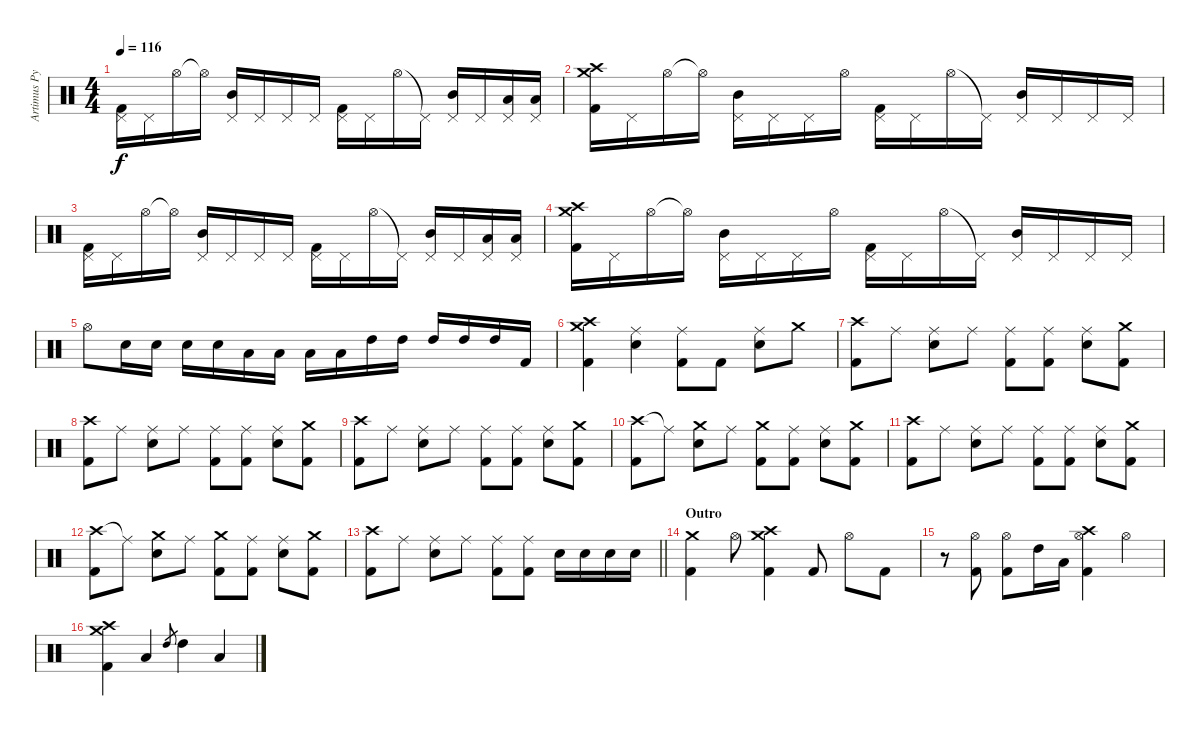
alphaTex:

\track ("Artimus Pyle - Drums and Percussion" "Artimus Py") {instrument percussion}
\staff {score}
\articulation defaults
\ts (4 4)
\tempo 116
\clef neutral
\ks c
("Pedal Hi-Hat (hit)" "Kick (hit) 2").16{dy f} "Pedal Hi-Hat (hit)".16 "Hi-Hat (open)".16 "Hi-Hat (open)"{t}.16 ("Pedal Hi-Hat (hit)" "Mid Tom (hit)").16 "Pedal Hi-Hat (hit)".16 "Pedal Hi-Hat (hit)".16 "Pedal Hi-Hat (hit)".16 ("Pedal Hi-Hat (hit)" "Kick (hit) 2").16 "Pedal Hi-Hat (hit)".16 "Hi-Hat (open)".16 "Pedal Hi-Hat (hit)"{t}.16 ("Pedal Hi-Hat (hit)" "Mid Tom (hit)").16 "Pedal Hi-Hat (hit)".16 ("Pedal Hi-Hat (hit)" "Low Floor Tom (hit)").16 ("Pedal Hi-Hat (hit)" "Low Floor Tom (hit)").16 |
("Crash high (hit)" "Crash medium (hit)" "Kick (hit) 2").16 "Pedal Hi-Hat (hit)".16 "Hi-Hat (open)".16 "Hi-Hat (open)"{t}.16 ("Pedal Hi-Hat (hit)" "Mid Tom (hit)").16 "Pedal Hi-Hat (hit)".16 "Pedal Hi-Hat (hit)".16 "Hi-Hat (open)".16 ("Pedal Hi-Hat (hit)" "Kick (hit) 2").16 "Pedal Hi-Hat (hit)".16 "Hi-Hat (open)".16 "Pedal Hi-Hat (hit)"{t}.16 ("Pedal Hi-Hat (hit)" "Mid Tom (hit)").16 "Pedal Hi-Hat (hit)".16 "Pedal Hi-Hat (hit)".16 "Pedal Hi-Hat (hit)".16 |
("Pedal Hi-Hat (hit)" "Kick (hit) 2").16 "Pedal Hi-Hat (hit)".16 "Hi-Hat (open)".16 "Hi-Hat (open)"{t}.16 ("Pedal Hi-Hat (hit)" "Mid Tom (hit)").16 "Pedal Hi-Hat (hit)".16 "Pedal Hi-Hat (hit)".16 "Pedal Hi-Hat (hit)".16 ("Pedal Hi-Hat (hit)" "Kick (hit) 2").16 "Pedal Hi-Hat (hit)".16 "Hi-Hat (open)".16 "Pedal Hi-Hat (hit)"{t}.16 ("Pedal Hi-Hat (hit)" "Mid Tom (hit)").16 "Pedal Hi-Hat (hit)".16 ("Pedal Hi-Hat (hit)" "Low Floor Tom (hit)").16 ("Pedal Hi-Hat (hit)" "Low Floor Tom (hit)").16 |
("Crash high (hit)" "Crash medium (hit)" "Kick (hit) 2").16 "Pedal Hi-Hat (hit)".16 "Hi-Hat (open)".16 "Hi-Hat (open)"{t}.16 ("Pedal Hi-Hat (hit)" "Mid Tom (hit)").16 "Pedal Hi-Hat (hit)".16 "Pedal Hi-Hat (hit)".16 "Hi-Hat (open)".16 ("Pedal Hi-Hat (hit)" "Kick (hit) 2").16 "Pedal Hi-Hat (hit)".16 "Hi-Hat (open)".16 "Pedal Hi-Hat (hit)"{t}.16 ("Pedal Hi-Hat (hit)" "Mid Tom (hit)").16 "Pedal Hi-Hat (hit)".16 "Pedal Hi-Hat (hit)".16 "Pedal Hi-Hat (hit)".16 |
"Hi-Hat (open)".8 "Snare (hit) 2".16 "Snare (hit) 2".16 "Snare (hit) 2".16 "Snare (hit) 2".16 "Low Floor Tom (hit)".16 "Low Floor Tom (hit)".16 "Low Floor Tom (hit)".16 "Low Floor Tom (hit)".16 "High Tom (hit)".16 "High Tom (hit)".16 "High Tom (hit)".16 "High Tom (hit)".16 "High Tom (hit)".16 "Kick (hit) 2".16 |
("Crash medium (hit)" "Crash high (hit)" "Kick (hit) 2").4 ("Ride (middle)" "Snare (hit) 2").4 ("Ride (middle)" "Kick (hit) 2").8 "Kick (hit) 2".8 ("Ride (middle)" "Snare (hit) 2").8 "Crash medium (hit)".8 |
("Crash high (hit)" "Kick (hit) 2").8 "Ride (middle)".8 ("Ride (middle)" "Snare (hit) 2").8 "Ride (middle)".8 ("Ride (middle)" "Kick (hit) 2").8 ("Ride (middle)" "Kick (hit) 2").8 ("Ride (middle)" "Snare (hit) 2").8 ("Crash medium (hit)" "Kick (hit) 2").8 |
("Crash high (hit)" "Kick (hit) 2").8 "Ride (middle)".8 ("Ride (middle)" "Snare (hit) 2").8 "Ride (middle)".8 ("Ride (middle)" "Kick (hit) 2").8 ("Ride (middle)" "Kick (hit) 2").8 ("Ride (middle)" "Snare (hit) 2").8 ("Crash medium (hit)" "Kick (hit) 2").8 |
("Crash high (hit)" "Kick (hit) 2").8 "Ride (middle)".8 ("Ride (middle)" "Snare (hit) 2").8 "Ride (middle)".8 ("Ride (middle)" "Kick (hit) 2").8 ("Ride (middle)" "Kick (hit) 2").8 ("Ride (middle)" "Snare (hit) 2").8 ("Crash medium (hit)" "Kick (hit) 2").8 |
("Crash high (hit)" "Kick (hit) 2").8 "Ride (middle)"{t}.8 ("Crash medium (hit)" "Snare (hit) 2").8 "Ride (middle)".8 ("Crash medium (hit)" "Kick (hit) 2").8 ("Ride (middle)" "Kick (hit) 2").8 ("Ride (middle)" "Snare (hit) 2").8 ("Crash medium (hit)" "Kick (hit) 2").8 |
("Crash high (hit)" "Kick (hit) 2").8 "Ride (middle)".8 ("Ride (middle)" "Snare (hit) 2").8 "Ride (middle)".8 ("Ride (middle)" "Kick (hit) 2").8 ("Ride (middle)" "Kick (hit) 2").8 ("Ride (middle)" "Snare (hit) 2").8 ("Crash medium (hit)" "Kick (hit) 2").8 |
("Crash high (hit)" "Kick (hit) 2").8 "Ride (middle)"{t}.8 ("Crash medium (hit)" "Snare (hit) 2").8 "Ride (middle)".8 ("Crash medium (hit)" "Kick (hit) 2").8 ("Ride (middle)" "Kick (hit) 2").8 ("Ride (middle)" "Snare (hit) 2").8 ("Crash medium (hit)" "Kick (hit) 2").8 |
\barLineRight lightlight
("Crash high (hit)" "Kick (hit) 2").8 "Ride (middle)".8 ("Ride (middle)" "Snare (hit) 2").8 "Ride (middle)".8 ("Ride (middle)" "Kick (hit) 2").8 ("Ride (middle)" "Kick (hit) 2").8 "Snare (hit) 2".16 "Snare (hit) 2".16 "Snare (hit) 2".16 "Snare (hit) 2".16 |
\section ("" "Outro")
("Crash medium (hit)" "Kick (hit) 2").4 "Hi-Hat (open)".8 ("Crash medium (hit)" "Crash high (hit)" "Kick (hit) 2").4 "Kick (hit) 2".8 "Hi-Hat (open)".8 "Kick (hit) 2".8 |
r.8 ("Hi-Hat (open)" "Kick (hit) 2").8 ("Hi-Hat (open)" "Kick (hit) 2").8 "High Tom (hit)".16 "Low Floor Tom (hit)".16 ("Crash high (hit)" "Hi-Hat (open)" "Kick (hit) 2").4 "Hi-Hat (open)".4 |
("Crash medium (hit)" "Crash high (hit)" "Kick (hit) 2").4 "Low Floor Tom (hit)".4 "High Tom (hit)".8{gr} "High Tom (hit)".4 "Low Tom (hit)".4
